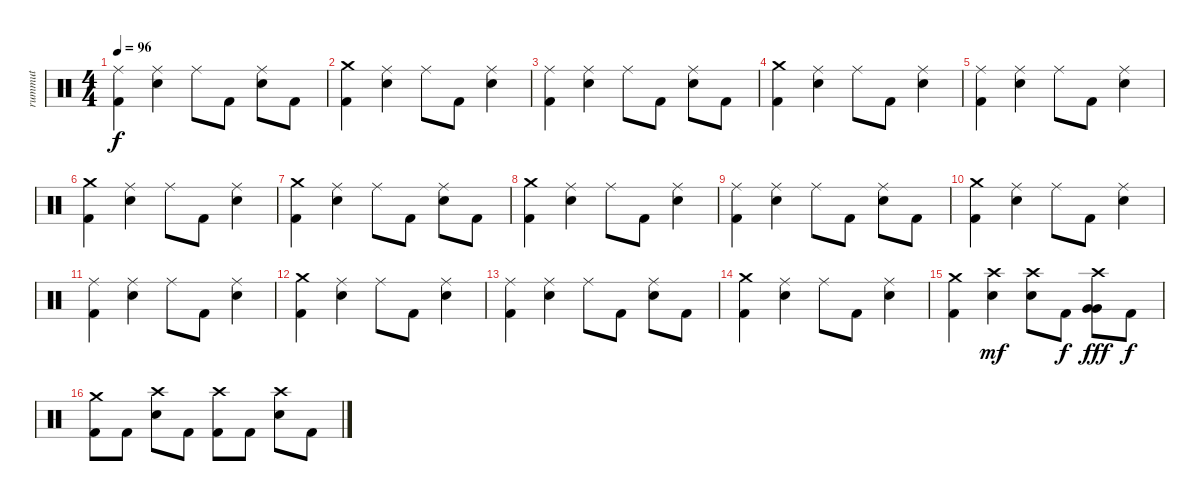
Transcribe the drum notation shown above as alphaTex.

\track ("rummut" "rummut") {instrument percussion}
\staff {score}
\articulation defaults
\ts (4 4)
\tempo 96
\clef neutral
\ks c
("Kick (hit) 2" "Ride (middle)").4{dy f} ("Ride (middle)" "Snare (hit) 2").4 "Ride (middle)".8 "Kick (hit) 2".8 ("Ride (middle)" "Snare (hit) 2").8 "Kick (hit) 2".8 |
("Kick (hit) 2" "Crash medium (hit)").4 ("Ride (middle)" "Snare (hit) 2").4 "Ride (middle)".8 "Kick (hit) 2".8 ("Ride (middle)" "Snare (hit) 2").4 |
("Kick (hit) 2" "Ride (middle)").4 ("Ride (middle)" "Snare (hit) 2").4 "Ride (middle)".8 "Kick (hit) 2".8 ("Ride (middle)" "Snare (hit) 2").8 "Kick (hit) 2".8 |
("Kick (hit) 2" "Crash medium (hit)").4 ("Ride (middle)" "Snare (hit) 2").4 "Ride (middle)".8 "Kick (hit) 2".8 ("Ride (middle)" "Snare (hit) 2").4 |
("Kick (hit) 2" "Ride (middle)").4 ("Ride (middle)" "Snare (hit) 2").4 "Ride (middle)".8 "Kick (hit) 2".8 ("Ride (middle)" "Snare (hit) 2").4 |
("Kick (hit) 2" "Crash medium (hit)").4 ("Ride (middle)" "Snare (hit) 2").4 "Ride (middle)".8 "Kick (hit) 2".8 ("Ride (middle)" "Snare (hit) 2").4 |
("Kick (hit) 2" "Crash medium (hit)").4 ("Ride (middle)" "Snare (hit) 2").4 "Ride (middle)".8 "Kick (hit) 2".8 ("Ride (middle)" "Snare (hit) 2").8 "Kick (hit) 2".8 |
("Kick (hit) 2" "Crash medium (hit)").4 ("Ride (middle)" "Snare (hit) 2").4 "Ride (middle)".8 "Kick (hit) 2".8 ("Ride (middle)" "Snare (hit) 2").4 |
("Kick (hit) 2" "Ride (middle)").4 ("Ride (middle)" "Snare (hit) 2").4 "Ride (middle)".8 "Kick (hit) 2".8 ("Ride (middle)" "Snare (hit) 2").8 "Kick (hit) 2".8 |
("Kick (hit) 2" "Crash medium (hit)").4 ("Ride (middle)" "Snare (hit) 2").4 "Ride (middle)".8 "Kick (hit) 2".8 ("Ride (middle)" "Snare (hit) 2").4 |
("Kick (hit) 2" "Ride (middle)").4 ("Ride (middle)" "Snare (hit) 2").4 "Ride (middle)".8 "Kick (hit) 2".8 ("Ride (middle)" "Snare (hit) 2").4 |
("Kick (hit) 2" "Crash medium (hit)").4 ("Ride (middle)" "Snare (hit) 2").4 "Ride (middle)".8 "Kick (hit) 2".8 ("Ride (middle)" "Snare (hit) 2").4 |
("Kick (hit) 2" "Ride (middle)").4 ("Ride (middle)" "Snare (hit) 2").4 "Ride (middle)".8 "Kick (hit) 2".8 ("Ride (middle)" "Snare (hit) 2").8 "Kick (hit) 2".8 |
("Kick (hit) 2" "Crash medium (hit)").4 ("Ride (middle)" "Snare (hit) 2").4 "Ride (middle)".8 "Kick (hit) 2".8 ("Ride (middle)" "Snare (hit) 2").4 |
("Kick (hit) 2" "Crash medium (hit)").4 ("Crash high (hit)" "Snare (hit) 2").4{dy mf} ("Crash high (hit)" "Snare (hit) 2").8 "Kick (hit) 2".8{dy f} ("Crash high (hit)" "Very Low Tom (hit)" "Very Low Tom (hit)").8{dy fff} "Kick (hit) 2".8{dy f} |
("Kick (hit) 2" "Crash medium (hit)").8 "Kick (hit) 2".8 ("Crash high (hit)" "Snare (hit) 2").8 "Kick (hit) 2".8 ("Kick (hit) 2" "Crash high (hit)").8 "Kick (hit) 2".8 ("Crash high (hit)" "Snare (hit) 2").8 "Kick (hit) 2".8
